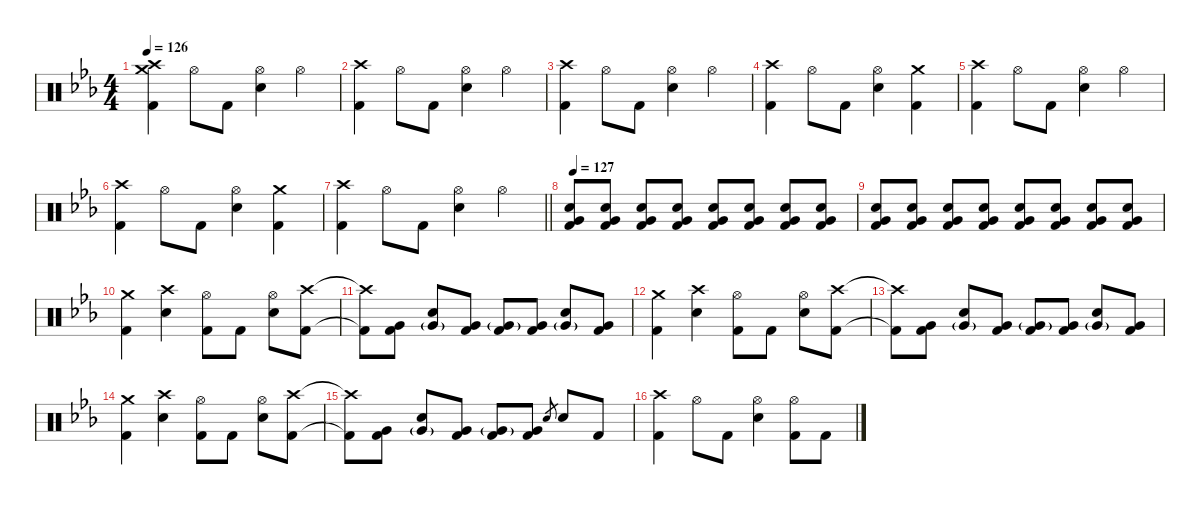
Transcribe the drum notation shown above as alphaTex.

\defaultSystemsLayout 4
\hideDynamics
\bracketExtendMode nobrackets
\singleTrackTrackNamePolicy hidden
\multiTrackTrackNamePolicy hidden
\firstSystemTrackNameMode fullname
\otherSystemsTrackNameOrientation horizontal
\track ("Drums" "drm.") {instrument percussion}
\staff {score}
\articulation defaults
\ts (4 4)
\tempo 126
\clef neutral
\ks cminor
("Crash medium (hit)"{acc forcenatural} "Crash high (hit)"{acc forcenatural} "Kick (hit) 2"{acc forcenatural}).4{dy f beam Down} "Hi-Hat (open)"{acc forcenatural}.8{dy mp beam Down} "Kick (hit) 2"{acc forcenatural}.8{dy f beam Down} ("Hi-Hat (open)"{acc forcenatural} "Snare (hit) 2"{acc forcenatural}).4{dy mp beam Down} "Hi-Hat (open)"{acc forcenatural}.4{beam Down} |
("Crash high (hit)"{acc forcenatural} "Kick (hit) 2"{acc forcenatural}).4{beam Down} "Hi-Hat (open)"{acc forcenatural}.8{beam Down} "Kick (hit) 2"{acc forcenatural}.8{dy f beam Down} ("Hi-Hat (open)"{acc forcenatural} "Snare (hit) 2"{acc forcenatural}).4{dy mp beam Down} "Hi-Hat (open)"{acc forcenatural}.4{beam Down} |
("Crash high (hit)"{acc forcenatural} "Kick (hit) 2"{acc forcenatural}).4{beam Down} "Hi-Hat (open)"{acc forcenatural}.8{beam Down} "Kick (hit) 2"{acc forcenatural}.8{dy f beam Down} ("Hi-Hat (open)"{acc forcenatural} "Snare (hit) 2"{acc forcenatural}).4{dy mp beam Down} "Hi-Hat (open)"{acc forcenatural}.4{beam Down} |
("Crash high (hit)"{acc forcenatural} "Kick (hit) 2"{acc forcenatural}).4{beam Down} "Hi-Hat (open)"{acc forcenatural}.8{beam Down} "Kick (hit) 2"{acc forcenatural}.8{dy f beam Down} ("Hi-Hat (open)"{acc forcenatural} "Snare (hit) 2"{acc forcenatural}).4{dy mp beam Down} ("Crash medium (hit)"{acc forcenatural} "Kick (hit) 2"{acc forcenatural}).4{beam Down} |
("Crash high (hit)"{acc forcenatural} "Kick (hit) 2"{acc forcenatural}).4{beam Down} "Hi-Hat (open)"{acc forcenatural}.8{beam Down} "Kick (hit) 2"{acc forcenatural}.8{dy f beam Down} ("Hi-Hat (open)"{acc forcenatural} "Snare (hit) 2"{acc forcenatural}).4{dy mp beam Down} "Hi-Hat (open)"{acc forcenatural}.4{beam Down} |
("Crash high (hit)"{acc forcenatural} "Kick (hit) 2"{acc forcenatural}).4{beam Down} "Hi-Hat (open)"{acc forcenatural}.8{beam Down} "Kick (hit) 2"{acc forcenatural}.8{dy f beam Down} ("Hi-Hat (open)"{acc forcenatural} "Snare (hit) 2"{acc forcenatural}).4{dy mp beam Down} ("Crash medium (hit)"{acc forcenatural} "Kick (hit) 2"{acc forcenatural}).4{beam Down} |
\barLineRight lightlight
("Crash high (hit)"{acc forcenatural} "Kick (hit) 2"{acc forcenatural}).4{beam Down} "Hi-Hat (open)"{acc forcenatural}.8{beam Down} "Kick (hit) 2"{acc forcenatural}.8{dy f beam Down} ("Hi-Hat (open)"{acc forcenatural} "Snare (hit) 2"{acc forcenatural}).4{dy mp beam Down} "Hi-Hat (open)"{acc forcenatural}.4{beam Down} |
\tempo 127
("Snare (hit) 2"{acc forcenatural} "Very Low Tom (hit)"{acc forcenatural} "Kick (hit) 2"{acc forcenatural}).8{dy ppp beam Up} ("Snare (hit) 2"{acc forcenatural} "Very Low Tom (hit)"{acc forcenatural} "Kick (hit) 2"{acc forcenatural}).8{beam Up} ("Snare (hit) 2"{acc forcenatural} "Very Low Tom (hit)"{acc forcenatural} "Kick (hit) 2"{acc forcenatural}).8{dy pp beam Up} ("Snare (hit) 2"{acc forcenatural} "Very Low Tom (hit)"{acc forcenatural} "Kick (hit) 2"{acc forcenatural}).8{beam Up} ("Snare (hit) 2"{acc forcenatural} "Very Low Tom (hit)"{acc forcenatural} "Kick (hit) 2"{acc forcenatural}).8{dy p beam Up} ("Snare (hit) 2"{acc forcenatural} "Very Low Tom (hit)"{acc forcenatural} "Kick (hit) 2"{acc forcenatural}).8{beam Up} ("Snare (hit) 2"{acc forcenatural} "Very Low Tom (hit)"{acc forcenatural} "Kick (hit) 2"{acc forcenatural}).8{dy mp beam Up} ("Snare (hit) 2"{acc forcenatural} "Very Low Tom (hit)"{acc forcenatural} "Kick (hit) 2"{acc forcenatural}).8{beam Up} |
("Snare (hit) 2"{acc forcenatural} "Very Low Tom (hit)"{acc forcenatural} "Kick (hit) 2"{acc forcenatural}).8{dy mf beam Up} ("Snare (hit) 2"{acc forcenatural} "Very Low Tom (hit)"{acc forcenatural} "Kick (hit) 2"{acc forcenatural}).8{beam Up} ("Snare (hit) 2"{acc forcenatural} "Very Low Tom (hit)"{acc forcenatural} "Kick (hit) 2"{acc forcenatural}).8{dy f beam Up} ("Snare (hit) 2"{acc forcenatural} "Very Low Tom (hit)"{acc forcenatural} "Kick (hit) 2"{acc forcenatural}).8{beam Up} ("Snare (hit) 2"{acc forcenatural} "Very Low Tom (hit)"{acc forcenatural} "Kick (hit) 2"{acc forcenatural}).8{dy ff beam Up} ("Snare (hit) 2"{acc forcenatural} "Very Low Tom (hit)"{acc forcenatural} "Kick (hit) 2"{acc forcenatural}).8{beam Up} ("Snare (hit) 2"{acc forcenatural} "Very Low Tom (hit)"{acc forcenatural} "Kick (hit) 2"{acc forcenatural}).8{dy fff beam Up} ("Snare (hit) 2"{acc forcenatural} "Very Low Tom (hit)"{acc forcenatural} "Kick (hit) 2"{acc forcenatural}).8{beam Up} |
("Crash medium (hit)"{acc forcenatural} "Kick (hit) 2"{acc forcenatural}).4{dy f beam Down} ("Crash high (hit)"{acc forcenatural} "Snare (hit) 2"{acc forcenatural}).4{beam Down} ("Hi-Hat (open)"{acc forcenatural} "Kick (hit) 2"{acc forcenatural}).8{dy mp beam Down} "Kick (hit) 2"{acc forcenatural}.8{dy f beam Down} ("Hi-Hat (open)"{acc forcenatural} "Snare (hit) 2"{acc forcenatural}).8{dy mp beam Down} ("Crash high (hit)"{acc forcenatural} "Kick (hit) 2"{acc forcenatural}).8{dy f beam Down} |
("Crash high (hit)"{t acc forcenatural} "Kick (hit) 2"{t acc forcenatural}).8{beam Down} ("Very Low Tom (hit)"{acc forcenatural} "Kick (hit) 2"{acc forcenatural}).8{beam Down} ("Snare (hit) 2"{acc forcenatural} "Very Low Tom (hit)"{g acc forcenatural}).8{beam Up} ("Very Low Tom (hit)"{acc forcenatural} "Kick (hit) 2"{acc forcenatural}).8{beam Up} ("Very Low Tom (hit)"{g acc forcenatural} "Kick (hit) 2"{acc forcenatural}).8{beam Up} ("Very Low Tom (hit)"{acc forcenatural} "Kick (hit) 2"{acc forcenatural}).8{beam Up} ("Snare (hit) 2"{acc forcenatural} "Very Low Tom (hit)"{g acc forcenatural}).8{beam Up} ("Very Low Tom (hit)"{acc forcenatural} "Kick (hit) 2"{acc forcenatural}).8{beam Up} |
("Crash medium (hit)"{acc forcenatural} "Kick (hit) 2"{acc forcenatural}).4{beam Down} ("Crash high (hit)"{acc forcenatural} "Snare (hit) 2"{acc forcenatural}).4{beam Down} ("Hi-Hat (open)"{acc forcenatural} "Kick (hit) 2"{acc forcenatural}).8{dy mp beam Down} "Kick (hit) 2"{acc forcenatural}.8{dy f beam Down} ("Hi-Hat (open)"{acc forcenatural} "Snare (hit) 2"{acc forcenatural}).8{dy mp beam Down} ("Crash high (hit)"{acc forcenatural} "Kick (hit) 2"{acc forcenatural}).8{dy f beam Down} |
("Crash high (hit)"{t acc forcenatural} "Kick (hit) 2"{t acc forcenatural}).8{beam Down} ("Very Low Tom (hit)"{acc forcenatural} "Kick (hit) 2"{acc forcenatural}).8{beam Down} ("Snare (hit) 2"{acc forcenatural} "Very Low Tom (hit)"{g acc forcenatural}).8{beam Up} ("Very Low Tom (hit)"{acc forcenatural} "Kick (hit) 2"{acc forcenatural}).8{beam Up} ("Very Low Tom (hit)"{g acc forcenatural} "Kick (hit) 2"{acc forcenatural}).8{beam Up} ("Very Low Tom (hit)"{acc forcenatural} "Kick (hit) 2"{acc forcenatural}).8{beam Up} ("Snare (hit) 2"{acc forcenatural} "Very Low Tom (hit)"{g acc forcenatural}).8{beam Up} ("Very Low Tom (hit)"{acc forcenatural} "Kick (hit) 2"{acc forcenatural}).8{beam Up} |
("Crash medium (hit)"{acc forcenatural} "Kick (hit) 2"{acc forcenatural}).4{beam Down} ("Crash high (hit)"{acc forcenatural} "Snare (hit) 2"{acc forcenatural}).4{beam Down} ("Hi-Hat (open)"{acc forcenatural} "Kick (hit) 2"{acc forcenatural}).8{dy mp beam Down} "Kick (hit) 2"{acc forcenatural}.8{dy f beam Down} ("Hi-Hat (open)"{acc forcenatural} "Snare (hit) 2"{acc forcenatural}).8{dy mp beam Down} ("Crash high (hit)"{acc forcenatural} "Kick (hit) 2"{acc forcenatural}).8{dy f beam Down} |
("Crash high (hit)"{t acc forcenatural} "Kick (hit) 2"{t acc forcenatural}).8{beam Down} ("Very Low Tom (hit)"{acc forcenatural} "Kick (hit) 2"{acc forcenatural}).8{beam Down} ("Snare (hit) 2"{acc forcenatural} "Very Low Tom (hit)"{g acc forcenatural}).8{beam Up} ("Very Low Tom (hit)"{acc forcenatural} "Kick (hit) 2"{acc forcenatural}).8{beam Up} ("Very Low Tom (hit)"{g acc forcenatural} "Kick (hit) 2"{acc forcenatural}).8{beam Up} ("Very Low Tom (hit)"{acc forcenatural} "Kick (hit) 2"{acc forcenatural}).8{beam Up} "Electric Snare (hit)"{acc forcenatural}.8{gr dy mf beam Up} "Snare (hit) 2"{acc forcenatural}.8{dy f beam Up} "Kick (hit) 2"{acc forcenatural}.8{beam Up} |
("Crash high (hit)"{acc forcenatural} "Kick (hit) 2"{acc forcenatural}).4{beam Down} "Hi-Hat (open)"{acc forcenatural}.8{dy mp beam Down} "Kick (hit) 2"{acc forcenatural}.8{dy f beam Down} ("Hi-Hat (open)"{acc forcenatural} "Snare (hit) 2"{acc forcenatural}).4{dy mp beam Down} ("Hi-Hat (open)"{acc forcenatural} "Kick (hit) 2"{acc forcenatural}).8{beam Down} "Kick (hit) 2"{acc forcenatural}.8{dy f beam Down}
